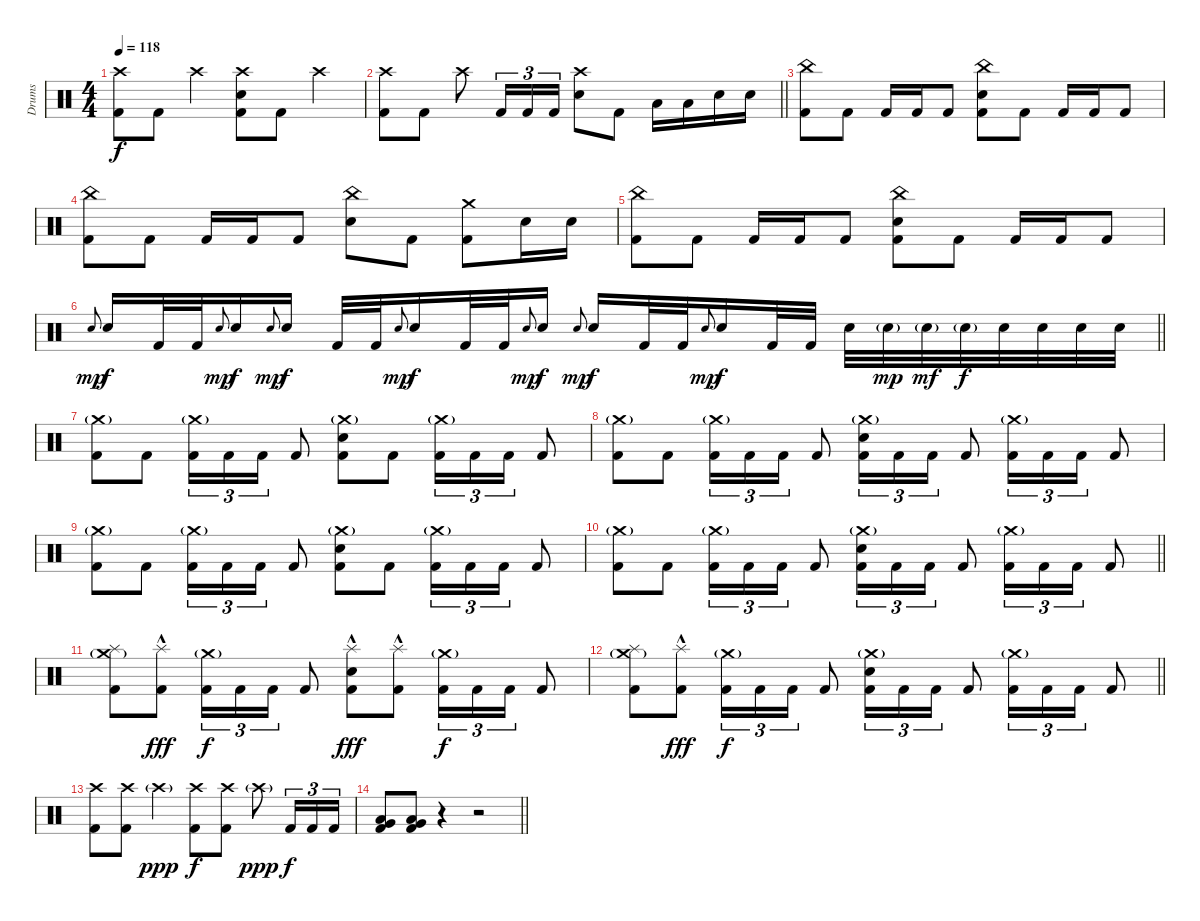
\track ("Drums" "Drums") {instrument percussion}
\staff {score}
\articulation defaults
\ts (4 4)
\tempo 118
\clef neutral
\ks c
("Crash high (hit)" "Kick (hit) 2").8{dy f} "Kick (hit) 2".8 "Crash high (hit)".4 ("Crash high (hit)" "Electric Snare (hit)" "Kick (hit) 2").8 "Kick (hit) 2".8 "Crash high (hit)".4 |
\barLineRight lightlight
("Crash high (hit)" "Kick (hit) 2").8 "Kick (hit) 2".8 "Crash high (hit)".8 "Kick (hit) 2".16{tu (3 2)} "Kick (hit) 2".16{tu (3 2)} "Kick (hit) 2".16{tu (3 2)} ("Crash high (hit)" "Electric Snare (hit)").8 "Kick (hit) 2".8 "Low Tom (hit)".16 "Low Tom (hit)".16 "Electric Snare (hit)".16 "Electric Snare (hit)".16 |
("China (hit)" "Kick (hit) 2").8 "Kick (hit) 2".8 "Kick (hit) 2".16 "Kick (hit) 2".16 "Kick (hit) 2".8 ("China (hit)" "Electric Snare (hit)" "Kick (hit) 2").8 "Kick (hit) 2".8 "Kick (hit) 2".16 "Kick (hit) 2".16 "Kick (hit) 2".8 |
("China (hit)" "Kick (hit) 2").8 "Kick (hit) 2".8 "Kick (hit) 2".16 "Kick (hit) 2".16 "Kick (hit) 2".8 ("China (hit)" "Electric Snare (hit)").8 "Kick (hit) 2".8 ("Crash medium (hit)" "Kick (hit) 2").8 "Electric Snare (hit)".16 "Electric Snare (hit)".16 |
("China (hit)" "Kick (hit) 2").8 "Kick (hit) 2".8 "Kick (hit) 2".16 "Kick (hit) 2".16 "Kick (hit) 2".8 ("China (hit)" "Electric Snare (hit)" "Kick (hit) 2").8 "Kick (hit) 2".8 "Kick (hit) 2".16 "Kick (hit) 2".16 "Kick (hit) 2".8 |
\barLineRight lightlight "Electric Snare (hit)".8{gr onbeat dy mp} "Electric Snare (hit)".16{dy f} "Kick (hit) 2".32 "Kick (hit) 2".32 "Electric Snare (hit)".8{gr onbeat dy mp} "Electric Snare (hit)".16{dy f} "Electric Snare (hit)".8{gr onbeat dy mp} "Electric Snare (hit)".16{dy f} "Kick (hit) 2".32 "Kick (hit) 2".32 "Electric Snare (hit)".8{gr onbeat dy mp} "Electric Snare (hit)".16{dy f} "Kick (hit) 2".32 "Kick (hit) 2".32 "Electric Snare (hit)".8{gr onbeat dy mp} "Electric Snare (hit)".16{dy f} "Electric Snare (hit)".8{gr onbeat dy mp} "Electric Snare (hit)".16{dy f} "Kick (hit) 2".32 "Kick (hit) 2".32 "Electric Snare (hit)".8{gr onbeat dy mp} "Electric Snare (hit)".16{dy f} "Kick (hit) 2".32 "Kick (hit) 2".32 "Electric Snare (hit)".32 "Electric Snare (hit)"{g}.32{dy mp} "Electric Snare (hit)"{g}.32{dy mf} "Electric Snare (hit)"{g}.32{dy f} "Electric Snare (hit)".32 "Electric Snare (hit)".32 "Electric Snare (hit)".32 "Electric Snare (hit)".32
|
("Crash medium (hit)"{g} "Kick (hit) 2").8 "Kick (hit) 2".8 ("Crash medium (hit)"{g} "Kick (hit) 2").16{tu (3 2)} "Kick (hit) 2".16{tu (3 2)} "Kick (hit) 2".16{tu (3 2)} "Kick (hit) 2".8 ("Crash medium (hit)"{g} "Electric Snare (hit)" "Kick (hit) 2").8 "Kick (hit) 2".8 ("Crash medium (hit)"{g} "Kick (hit) 2").16{tu (3 2)} "Kick (hit) 2".16{tu (3 2)} "Kick (hit) 2".16{tu (3 2)} "Kick (hit) 2".8 |
("Crash medium (hit)"{g} "Kick (hit) 2").8 "Kick (hit) 2".8 ("Crash medium (hit)"{g} "Kick (hit) 2").16{tu (3 2)} "Kick (hit) 2".16{tu (3 2)} "Kick (hit) 2".16{tu (3 2)} "Kick (hit) 2".8 ("Crash medium (hit)"{g} "Electric Snare (hit)" "Kick (hit) 2").16{tu (3 2)} "Kick (hit) 2".16{tu (3 2)} "Kick (hit) 2".16{tu (3 2)} "Kick (hit) 2".8 ("Crash medium (hit)"{g} "Kick (hit) 2").16{tu (3 2)} "Kick (hit) 2".16{tu (3 2)} "Kick (hit) 2".16{tu (3 2)} "Kick (hit) 2".8 |
("Crash medium (hit)"{g} "Kick (hit) 2").8 "Kick (hit) 2".8 ("Crash medium (hit)"{g} "Kick (hit) 2").16{tu (3 2)} "Kick (hit) 2".16{tu (3 2)} "Kick (hit) 2".16{tu (3 2)} "Kick (hit) 2".8 ("Crash medium (hit)"{g} "Electric Snare (hit)" "Kick (hit) 2").8 "Kick (hit) 2".8 ("Crash medium (hit)"{g} "Kick (hit) 2").16{tu (3 2)} "Kick (hit) 2".16{tu (3 2)} "Kick (hit) 2".16{tu (3 2)} "Kick (hit) 2".8 |
\barLineRight lightlight
("Crash medium (hit)"{g} "Kick (hit) 2").8 "Kick (hit) 2".8 ("Crash medium (hit)"{g} "Kick (hit) 2").16{tu (3 2)} "Kick (hit) 2".16{tu (3 2)} "Kick (hit) 2".16{tu (3 2)} "Kick (hit) 2".8 ("Crash medium (hit)"{g} "Electric Snare (hit)" "Kick (hit) 2").16{tu (3 2)} "Kick (hit) 2".16{tu (3 2)} "Kick (hit) 2".16{tu (3 2)} "Kick (hit) 2".8 ("Crash medium (hit)"{g} "Kick (hit) 2").16{tu (3 2)} "Kick (hit) 2".16{tu (3 2)} "Kick (hit) 2".16{tu (3 2)} "Kick (hit) 2".8 |
("Crash medium (hit)"{g} "Splash (hit)" "Kick (hit) 2").8 ("Splash (hit)"{hac} "Kick (hit) 2").8{dy fff} ("Crash medium (hit)"{g} "Kick (hit) 2").16{tu (3 2) dy f} "Kick (hit) 2".16{tu (3 2)} "Kick (hit) 2".16{tu (3 2)} "Kick (hit) 2".8 ("Splash (hit)"{hac} "Electric Snare (hit)" "Kick (hit) 2").8{dy fff} ("Splash (hit)"{hac} "Kick (hit) 2").8 ("Crash medium (hit)"{g} "Kick (hit) 2").16{tu (3 2) dy f} "Kick (hit) 2".16{tu (3 2)} "Kick (hit) 2".16{tu (3 2)} "Kick (hit) 2".8 |
\barLineRight lightlight
("Crash medium (hit)"{g} "Splash (hit)" "Kick (hit) 2").8 ("Splash (hit)"{hac} "Kick (hit) 2").8{dy fff} ("Crash medium (hit)"{g} "Kick (hit) 2").16{tu (3 2) dy f} "Kick (hit) 2".16{tu (3 2)} "Kick (hit) 2".16{tu (3 2)} "Kick (hit) 2".8 ("Crash medium (hit)"{g} "Electric Snare (hit)" "Kick (hit) 2").16{tu (3 2)} "Kick (hit) 2".16{tu (3 2)} "Kick (hit) 2".16{tu (3 2)} "Kick (hit) 2".8 ("Crash medium (hit)"{g} "Kick (hit) 2").16{tu (3 2)} "Kick (hit) 2".16{tu (3 2)} "Kick (hit) 2".16{tu (3 2)} "Kick (hit) 2".8 |
("Crash high (hit)" "Kick (hit) 2").8 ("Crash high (hit)" "Kick (hit) 2").8 "Crash high (hit)"{g}.4{dy ppp} ("Crash high (hit)" "Kick (hit) 2").8{dy f} ("Crash high (hit)" "Kick (hit) 2").8 "Crash high (hit)"{g}.8{dy ppp} "Kick (hit) 2".16{tu (3 2) dy f} "Kick (hit) 2".16{tu (3 2)} "Kick (hit) 2".16{tu (3 2)} |
\barLineRight lightlight
("Low Tom (hit)" "Very Low Tom (hit)" "Kick (hit) 2").8 ("Low Tom (hit)" "Very Low Tom (hit)" "Kick (hit) 2").8 r.4 r.2
